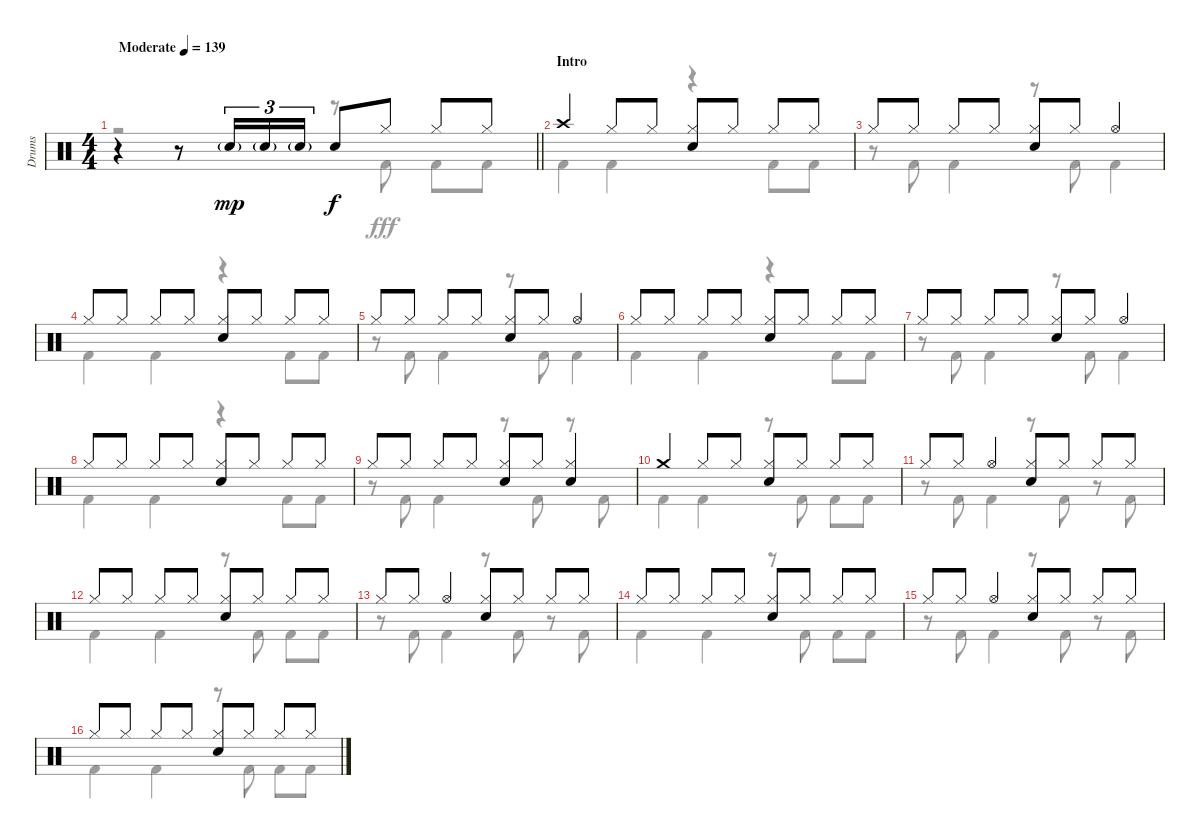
\track ("Drums" "Drums") {instrument percussion}
\staff {score}
\articulation defaults
\voice
\ts (4 4)
\tempo (139 "Moderate")
\clef neutral
\barLineRight lightlight
\ks aminor
r.4{dy mp} r.8 "Snare (hit) 2"{g}.16{tu (3 2)} "Snare (hit) 2"{g}.16{tu (3 2)} "Snare (hit) 2"{g}.16{tu (3 2)} "Snare (hit) 2".8{dy f} "Hi-Hat (closed)".8 "Hi-Hat (closed)".8 "Hi-Hat (closed)".8 |
\section ("" "Intro")
"Crash high (hit)".4 "Hi-Hat (closed)".8 "Hi-Hat (closed)".8 ("Hi-Hat (closed)" "Snare (hit) 2").8 "Hi-Hat (closed)".8 "Hi-Hat (closed)".8 "Hi-Hat (closed)".8 |
"Hi-Hat (closed)".8 "Hi-Hat (closed)".8 "Hi-Hat (closed)".8 "Hi-Hat (closed)".8 ("Hi-Hat (closed)" "Snare (hit) 2").8 "Hi-Hat (closed)".8 "Hi-Hat (open)".4 |
"Hi-Hat (closed)".8 "Hi-Hat (closed)".8 "Hi-Hat (closed)".8 "Hi-Hat (closed)".8 ("Hi-Hat (closed)" "Snare (hit) 2").8 "Hi-Hat (closed)".8 "Hi-Hat (closed)".8 "Hi-Hat (closed)".8 |
"Hi-Hat (closed)".8 "Hi-Hat (closed)".8 "Hi-Hat (closed)".8 "Hi-Hat (closed)".8 ("Hi-Hat (closed)" "Snare (hit) 2").8 "Hi-Hat (closed)".8 "Hi-Hat (open)".4 |
"Hi-Hat (closed)".8 "Hi-Hat (closed)".8 "Hi-Hat (closed)".8 "Hi-Hat (closed)".8 ("Hi-Hat (closed)" "Snare (hit) 2").8 "Hi-Hat (closed)".8 "Hi-Hat (closed)".8 "Hi-Hat (closed)".8 |
"Hi-Hat (closed)".8 "Hi-Hat (closed)".8 "Hi-Hat (closed)".8 "Hi-Hat (closed)".8 ("Hi-Hat (closed)" "Snare (hit) 2").8 "Hi-Hat (closed)".8 "Hi-Hat (open)".4 |
"Hi-Hat (closed)".8 "Hi-Hat (closed)".8 "Hi-Hat (closed)".8 "Hi-Hat (closed)".8 ("Hi-Hat (closed)" "Snare (hit) 2").8 "Hi-Hat (closed)".8 "Hi-Hat (closed)".8 "Hi-Hat (closed)".8 |
"Hi-Hat (closed)".8 "Hi-Hat (closed)".8 "Hi-Hat (closed)".8 "Hi-Hat (closed)".8 ("Hi-Hat (closed)" "Snare (hit) 2").8 "Hi-Hat (closed)".8 ("Hi-Hat (closed)" "Snare (hit) 2").4 |
"Crash medium (hit)".4 "Hi-Hat (closed)".8 "Hi-Hat (closed)".8 ("Hi-Hat (closed)" "Snare (hit) 2").8 "Hi-Hat (closed)".8 "Hi-Hat (closed)".8 "Hi-Hat (closed)".8 |
"Hi-Hat (closed)".8 "Hi-Hat (closed)".8 "Hi-Hat (open)".4 ("Hi-Hat (closed)" "Snare (hit) 2").8 "Hi-Hat (closed)".8 "Hi-Hat (closed)".8 "Hi-Hat (closed)".8 |
"Hi-Hat (closed)".8 "Hi-Hat (closed)".8 "Hi-Hat (closed)".8 "Hi-Hat (closed)".8 ("Hi-Hat (closed)" "Snare (hit) 2").8 "Hi-Hat (closed)".8 "Hi-Hat (closed)".8 "Hi-Hat (closed)".8 |
"Hi-Hat (closed)".8 "Hi-Hat (closed)".8 "Hi-Hat (open)".4 ("Hi-Hat (closed)" "Snare (hit) 2").8 "Hi-Hat (closed)".8 "Hi-Hat (closed)".8 "Hi-Hat (closed)".8 |
"Hi-Hat (closed)".8 "Hi-Hat (closed)".8 "Hi-Hat (closed)".8 "Hi-Hat (closed)".8 ("Hi-Hat (closed)" "Snare (hit) 2").8 "Hi-Hat (closed)".8 "Hi-Hat (closed)".8 "Hi-Hat (closed)".8 |
"Hi-Hat (closed)".8 "Hi-Hat (closed)".8 "Hi-Hat (open)".4 ("Hi-Hat (closed)" "Snare (hit) 2").8 "Hi-Hat (closed)".8 "Hi-Hat (closed)".8 "Hi-Hat (closed)".8 |
"Hi-Hat (closed)".8 "Hi-Hat (closed)".8 "Hi-Hat (closed)".8 "Hi-Hat (closed)".8 ("Hi-Hat (closed)" "Snare (hit) 2").8 "Hi-Hat (closed)".8 "Hi-Hat (closed)".8 "Hi-Hat (closed)".8
\voice
\clef neutral
\ottava regular
\simile none
\barLineRight lightlight
\ks aminor
r.2{dy fff} r.8 "Kick (hit) 2".8 "Kick (hit) 2".8 "Kick (hit) 2".8 |
"Kick (hit) 2".4 "Kick (hit) 2".4 r.4 "Kick (hit) 2".8 "Kick (hit) 2".8 |
r.8 "Kick (hit) 2".8 "Kick (hit) 2".4 r.8 "Kick (hit) 2".8 "Kick (hit) 2".4 |
"Kick (hit) 2".4 "Kick (hit) 2".4 r.4 "Kick (hit) 2".8 "Kick (hit) 2".8 |
r.8 "Kick (hit) 2".8 "Kick (hit) 2".4 r.8 "Kick (hit) 2".8 "Kick (hit) 2".4 |
"Kick (hit) 2".4 "Kick (hit) 2".4 r.4 "Kick (hit) 2".8 "Kick (hit) 2".8 |
r.8 "Kick (hit) 2".8 "Kick (hit) 2".4 r.8 "Kick (hit) 2".8 "Kick (hit) 2".4 |
"Kick (hit) 2".4 "Kick (hit) 2".4 r.4 "Kick (hit) 2".8 "Kick (hit) 2".8 |
r.8 "Kick (hit) 2".8 "Kick (hit) 2".4 r.8 "Kick (hit) 2".8 r.8 "Kick (hit) 2".8 |
"Kick (hit) 2".4 "Kick (hit) 2".4 r.8 "Kick (hit) 2".8 "Kick (hit) 2".8 "Kick (hit) 2".8 |
r.8 "Kick (hit) 2".8 "Kick (hit) 2".4 r.8 "Kick (hit) 2".8 r.8 "Kick (hit) 2".8 |
"Kick (hit) 2".4 "Kick (hit) 2".4 r.8 "Kick (hit) 2".8 "Kick (hit) 2".8 "Kick (hit) 2".8 |
r.8 "Kick (hit) 2".8 "Kick (hit) 2".4 r.8 "Kick (hit) 2".8 r.8 "Kick (hit) 2".8 |
"Kick (hit) 2".4 "Kick (hit) 2".4 r.8 "Kick (hit) 2".8 "Kick (hit) 2".8 "Kick (hit) 2".8 |
r.8 "Kick (hit) 2".8 "Kick (hit) 2".4 r.8 "Kick (hit) 2".8 r.8 "Kick (hit) 2".8 |
"Kick (hit) 2".4 "Kick (hit) 2".4 r.8 "Kick (hit) 2".8 "Kick (hit) 2".8 "Kick (hit) 2".8
